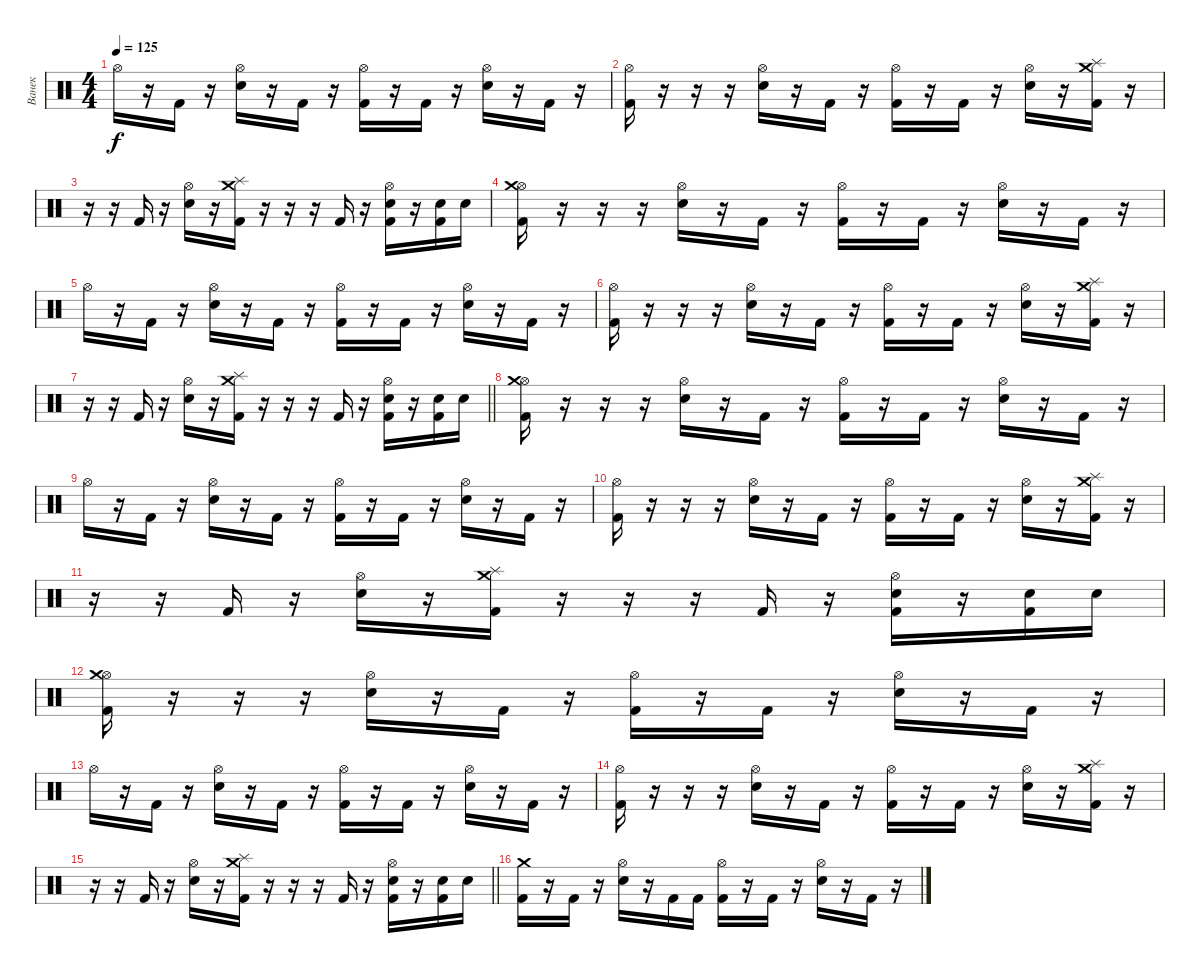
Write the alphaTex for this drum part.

\track ("Ванек" "Ванек") {instrument percussion}
\staff {score}
\articulation defaults
\ts (4 4)
\tempo 125
\clef neutral
\ks c "Hi-Hat (open)".16{dy f}
r.16 "Kick (hit) 2".16 r.16 ("Hi-Hat (open)" "Snare (hit) 2").16 r.16 "Kick (hit) 2".16 r.16 ("Hi-Hat (open)" "Kick (hit) 2").16 r.16 "Kick (hit) 2".16 r.16 ("Hi-Hat (open)" "Snare (hit) 2").16 r.16 "Kick (hit) 2".16 r.16 |
("Hi-Hat (open)" "Kick (hit) 2").16 r.16 r.16 r.16 ("Hi-Hat (open)" "Snare (hit) 2").16 r.16 "Kick (hit) 2".16 r.16 ("Hi-Hat (open)" "Kick (hit) 2").16 r.16 "Kick (hit) 2".16 r.16 ("Hi-Hat (open)" "Snare (hit) 2").16 r.16 ("Crash medium (hit)" "Splash (hit)" "Kick (hit) 2").16 r.16 |
r.16 r.16 "Kick (hit) 2".16 r.16 ("Hi-Hat (open)" "Snare (hit) 2").16 r.16 ("Crash medium (hit)" "Splash (hit)" "Kick (hit) 2").16 r.16 r.16 r.16 "Kick (hit) 2".16 r.16 ("Hi-Hat (open)" "Snare (hit) 2" "Kick (hit) 2").16 r.16 ("Snare (hit) 2" "Kick (hit) 2").16 "Snare (hit) 2".16 |
("Hi-Hat (open)" "Crash medium (hit)" "Kick (hit) 2").16 r.16 r.16 r.16 ("Hi-Hat (open)" "Snare (hit) 2").16 r.16 "Kick (hit) 2".16 r.16 ("Hi-Hat (open)" "Kick (hit) 2").16 r.16 "Kick (hit) 2".16 r.16 ("Hi-Hat (open)" "Snare (hit) 2").16 r.16 "Kick (hit) 2".16 r.16 |
"Hi-Hat (open)".16 r.16 "Kick (hit) 2".16 r.16 ("Hi-Hat (open)" "Snare (hit) 2").16 r.16 "Kick (hit) 2".16 r.16 ("Hi-Hat (open)" "Kick (hit) 2").16 r.16 "Kick (hit) 2".16 r.16 ("Hi-Hat (open)" "Snare (hit) 2").16 r.16 "Kick (hit) 2".16 r.16 |
("Hi-Hat (open)" "Kick (hit) 2").16 r.16 r.16 r.16 ("Hi-Hat (open)" "Snare (hit) 2").16 r.16 "Kick (hit) 2".16 r.16 ("Hi-Hat (open)" "Kick (hit) 2").16 r.16 "Kick (hit) 2".16 r.16 ("Hi-Hat (open)" "Snare (hit) 2").16 r.16 ("Crash medium (hit)" "Splash (hit)" "Kick (hit) 2").16 r.16 |
\barLineRight lightlight
r.16 r.16 "Kick (hit) 2".16 r.16 ("Hi-Hat (open)" "Snare (hit) 2").16 r.16 ("Crash medium (hit)" "Splash (hit)" "Kick (hit) 2").16 r.16 r.16 r.16 "Kick (hit) 2".16 r.16 ("Hi-Hat (open)" "Snare (hit) 2" "Kick (hit) 2").16 r.16 ("Snare (hit) 2" "Kick (hit) 2").16 "Snare (hit) 2".16 |
("Hi-Hat (open)" "Crash medium (hit)" "Kick (hit) 2").16 r.16 r.16 r.16 ("Hi-Hat (open)" "Snare (hit) 2").16 r.16 "Kick (hit) 2".16 r.16 ("Hi-Hat (open)" "Kick (hit) 2").16 r.16 "Kick (hit) 2".16 r.16 ("Hi-Hat (open)" "Snare (hit) 2").16 r.16 "Kick (hit) 2".16 r.16 |
"Hi-Hat (open)".16 r.16 "Kick (hit) 2".16 r.16 ("Hi-Hat (open)" "Snare (hit) 2").16 r.16 "Kick (hit) 2".16 r.16 ("Hi-Hat (open)" "Kick (hit) 2").16 r.16 "Kick (hit) 2".16 r.16 ("Hi-Hat (open)" "Snare (hit) 2").16 r.16 "Kick (hit) 2".16 r.16 |
("Hi-Hat (open)" "Kick (hit) 2").16 r.16 r.16 r.16 ("Hi-Hat (open)" "Snare (hit) 2").16 r.16 "Kick (hit) 2".16 r.16 ("Hi-Hat (open)" "Kick (hit) 2").16 r.16 "Kick (hit) 2".16 r.16 ("Hi-Hat (open)" "Snare (hit) 2").16 r.16 ("Crash medium (hit)" "Splash (hit)" "Kick (hit) 2").16 r.16 |
r.16 r.16 "Kick (hit) 2".16 r.16 ("Hi-Hat (open)" "Snare (hit) 2").16 r.16 ("Crash medium (hit)" "Splash (hit)" "Kick (hit) 2").16 r.16 r.16 r.16 "Kick (hit) 2".16 r.16 ("Hi-Hat (open)" "Snare (hit) 2" "Kick (hit) 2").16 r.16 ("Snare (hit) 2" "Kick (hit) 2").16 "Snare (hit) 2".16 |
("Hi-Hat (open)" "Crash medium (hit)" "Kick (hit) 2").16 r.16 r.16 r.16 ("Hi-Hat (open)" "Snare (hit) 2").16 r.16 "Kick (hit) 2".16 r.16 ("Hi-Hat (open)" "Kick (hit) 2").16 r.16 "Kick (hit) 2".16 r.16 ("Hi-Hat (open)" "Snare (hit) 2").16 r.16 "Kick (hit) 2".16 r.16 |
"Hi-Hat (open)".16 r.16 "Kick (hit) 2".16 r.16 ("Hi-Hat (open)" "Snare (hit) 2").16 r.16 "Kick (hit) 2".16 r.16 ("Hi-Hat (open)" "Kick (hit) 2").16 r.16 "Kick (hit) 2".16 r.16 ("Hi-Hat (open)" "Snare (hit) 2").16 r.16 "Kick (hit) 2".16 r.16 |
("Hi-Hat (open)" "Kick (hit) 2").16 r.16 r.16 r.16 ("Hi-Hat (open)" "Snare (hit) 2").16 r.16 "Kick (hit) 2".16 r.16 ("Hi-Hat (open)" "Kick (hit) 2").16 r.16 "Kick (hit) 2".16 r.16 ("Hi-Hat (open)" "Snare (hit) 2").16 r.16 ("Crash medium (hit)" "Splash (hit)" "Kick (hit) 2").16 r.16 |
\barLineRight lightlight
r.16 r.16 "Kick (hit) 2".16 r.16 ("Hi-Hat (open)" "Snare (hit) 2").16 r.16 ("Crash medium (hit)" "Splash (hit)" "Kick (hit) 2").16 r.16 r.16 r.16 "Kick (hit) 2".16 r.16 ("Hi-Hat (open)" "Snare (hit) 2" "Kick (hit) 2").16 r.16 ("Snare (hit) 2" "Kick (hit) 2").16 "Snare (hit) 2".16 |
("Crash medium (hit)" "Kick (hit) 2").16 r.16 "Kick (hit) 2".16 r.16 ("Hi-Hat (open)" "Snare (hit) 2").16 r.16 "Kick (hit) 2".16 "Kick (hit) 2".16 ("Hi-Hat (open)" "Kick (hit) 2").16 r.16 "Kick (hit) 2".16 r.16 ("Hi-Hat (open)" "Snare (hit) 2").16 r.16 "Kick (hit) 2".16 r.16
